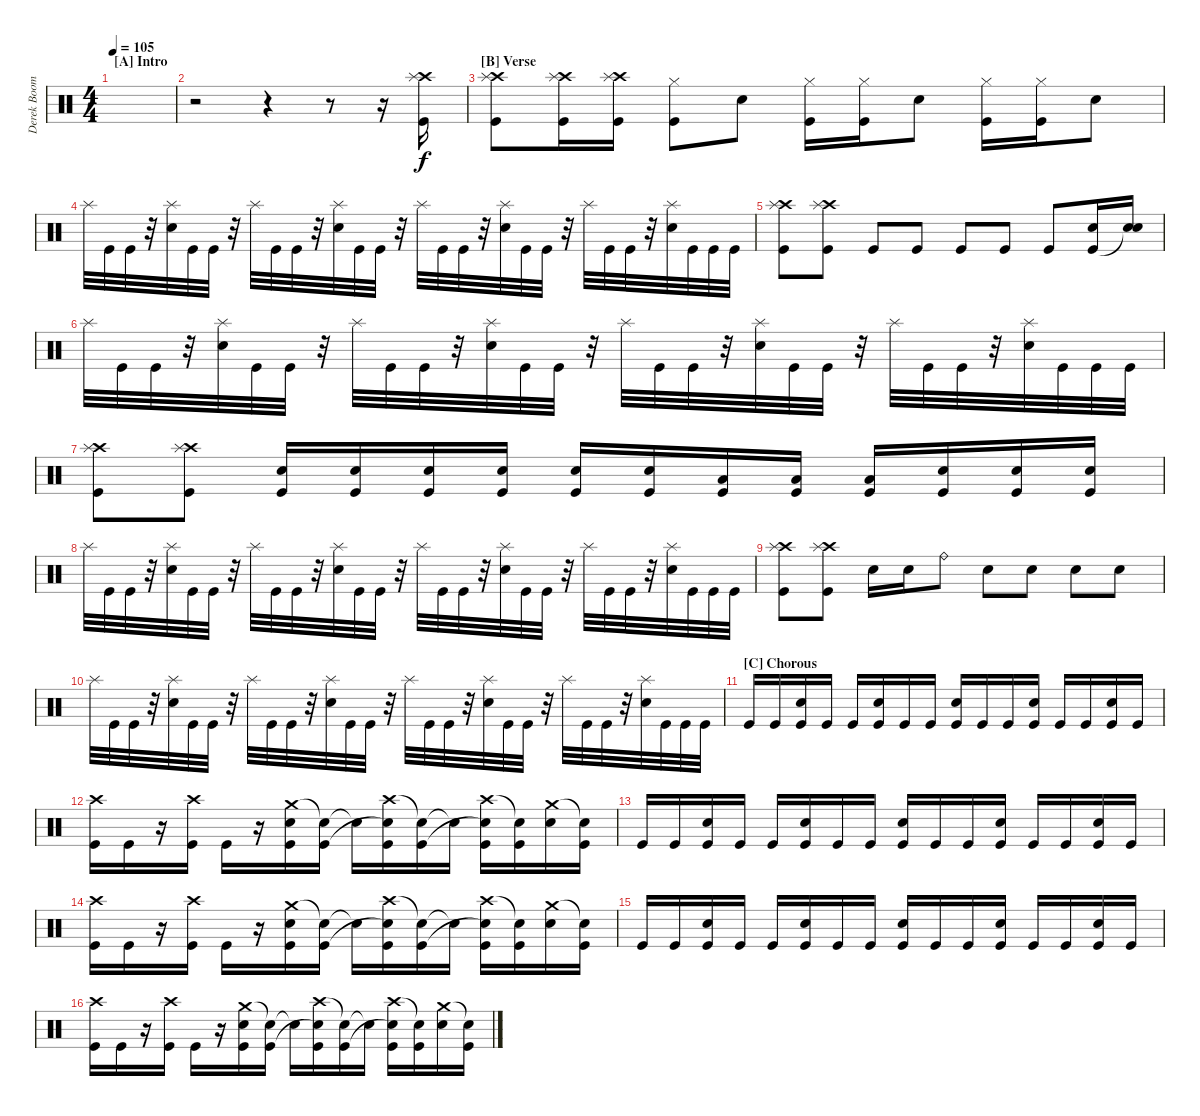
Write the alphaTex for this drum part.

\track ("Derek Boom" "Derek Boom") {instrument percussion}
\staff {score}
\articulation defaults
\ts (4 4)
\section ("" "[A] Intro")
\tempo 105
\clef neutral
\ks c
|
r.2 r.4 r.8 r.16 ("Crash high (hit)" "Splash (hit)" "Kick (hit)").16 |
\section ("" "[B] Verse")
("Crash high (hit)" "Splash (hit)" "Kick (hit)").8 ("Crash high (hit)" "Splash (hit)" "Kick (hit)").16 ("Crash high (hit)" "Splash (hit)" "Kick (hit)").16 ("Hi-Hat (closed)" "Kick (hit)").8 "Electric Snare (hit)".8 ("Hi-Hat (closed)" "Kick (hit)").16 ("Hi-Hat (closed)" "Kick (hit)").16 "Electric Snare (hit)".8 ("Hi-Hat (closed)" "Kick (hit)").16 ("Hi-Hat (closed)" "Kick (hit)").16 "Electric Snare (hit)".8 |
"Splash (hit)".32 "Kick (hit)".32 "Kick (hit)".32 r.32 ("Splash (hit)" "Electric Snare (hit)").32 "Kick (hit)".32 "Kick (hit)".32 r.32 "Splash (hit)".32 "Kick (hit)".32 "Kick (hit)".32 r.32 ("Splash (hit)" "Electric Snare (hit)").32 "Kick (hit)".32 "Kick (hit)".32 r.32 "Splash (hit)".32 "Kick (hit)".32 "Kick (hit)".32 r.32 ("Splash (hit)" "Electric Snare (hit)").32 "Kick (hit)".32 "Kick (hit)".32 r.32 "Splash (hit)".32 "Kick (hit)".32 "Kick (hit)".32 r.32 ("Splash (hit)" "Electric Snare (hit)").32 "Kick (hit)".32 "Kick (hit)".32 "Kick (hit)".32 |
("Crash high (hit)" "Splash (hit)" "Kick (hit)").8 ("Crash high (hit)" "Splash (hit)" "Kick (hit)").8 "Kick (hit)".8 "Kick (hit)".8 "Kick (hit)".8 "Kick (hit)".8 "Kick (hit)".8 ("Electric Snare (hit)" "Kick (hit)").16 ("Electric Snare (hit)" "Snare (hit)"{t}).16 |
"Splash (hit)".32 "Kick (hit)".32 "Kick (hit)".32 r.32 ("Splash (hit)" "Electric Snare (hit)").32 "Kick (hit)".32 "Kick (hit)".32 r.32 "Splash (hit)".32 "Kick (hit)".32 "Kick (hit)".32 r.32 ("Splash (hit)" "Electric Snare (hit)").32 "Kick (hit)".32 "Kick (hit)".32 r.32 "Splash (hit)".32 "Kick (hit)".32 "Kick (hit)".32 r.32 ("Splash (hit)" "Electric Snare (hit)").32 "Kick (hit)".32 "Kick (hit)".32 r.32 "Splash (hit)".32 "Kick (hit)".32 "Kick (hit)".32 r.32 ("Splash (hit)" "Electric Snare (hit)").32 "Kick (hit)".32 "Kick (hit)".32 "Kick (hit)".32 |
("Crash high (hit)" "Splash (hit)" "Kick (hit)").8 ("Crash high (hit)" "Splash (hit)" "Kick (hit)").8 ("Electric Snare (hit)" "Kick (hit)").16 ("Electric Snare (hit)" "Kick (hit)").16 ("Electric Snare (hit)" "Kick (hit)").16 ("Electric Snare (hit)" "Kick (hit)").16 ("Electric Snare (hit)" "Kick (hit)").16 ("Electric Snare (hit)" "Kick (hit)").16 ("Low Tom (hit)" "Kick (hit)").16 ("Low Tom (hit)" "Kick (hit)").16 ("Low Tom (hit)" "Kick (hit)").16 ("Electric Snare (hit)" "Kick (hit)").16 ("Electric Snare (hit)" "Kick (hit)").16 ("Electric Snare (hit)" "Kick (hit)").16 |
"Splash (hit)".32 "Kick (hit)".32 "Kick (hit)".32 r.32 ("Splash (hit)" "Electric Snare (hit)").32 "Kick (hit)".32 "Kick (hit)".32 r.32 "Splash (hit)".32 "Kick (hit)".32 "Kick (hit)".32 r.32 ("Splash (hit)" "Electric Snare (hit)").32 "Kick (hit)".32 "Kick (hit)".32 r.32 "Splash (hit)".32 "Kick (hit)".32 "Kick (hit)".32 r.32 ("Splash (hit)" "Electric Snare (hit)").32 "Kick (hit)".32 "Kick (hit)".32 r.32 "Splash (hit)".32 "Kick (hit)".32 "Kick (hit)".32 r.32 ("Splash (hit)" "Electric Snare (hit)").32 "Kick (hit)".32 "Kick (hit)".32 "Kick (hit)".32 |
("Crash high (hit)" "Splash (hit)" "Kick (hit)").8 ("Crash high (hit)" "Splash (hit)" "Kick (hit)").8 "Electric Snare (hit)".16 "Electric Snare (hit)".16 "Ride (bell)".8 "Electric Snare (hit)".8 "Electric Snare (hit)".8 "Electric Snare (hit)".8 "Electric Snare (hit)".8 |
"Splash (hit)".32 "Kick (hit)".32 "Kick (hit)".32 r.32 ("Splash (hit)" "Electric Snare (hit)").32 "Kick (hit)".32 "Kick (hit)".32 r.32 "Splash (hit)".32 "Kick (hit)".32 "Kick (hit)".32 r.32 ("Splash (hit)" "Electric Snare (hit)").32 "Kick (hit)".32 "Kick (hit)".32 r.32 "Splash (hit)".32 "Kick (hit)".32 "Kick (hit)".32 r.32 ("Splash (hit)" "Electric Snare (hit)").32 "Kick (hit)".32 "Kick (hit)".32 r.32 "Splash (hit)".32 "Kick (hit)".32 "Kick (hit)".32 r.32 ("Splash (hit)" "Electric Snare (hit)").32 "Kick (hit)".32 "Kick (hit)".32 "Kick (hit)".32 |
\section ("" "[C] Chorous")
"Kick (hit)".16 "Kick (hit)".16 ("Electric Snare (hit)" "Kick (hit)").16 "Kick (hit)".16 "Kick (hit)".16 ("Electric Snare (hit)" "Kick (hit)").16 "Kick (hit)".16 "Kick (hit)".16 ("Electric Snare (hit)" "Kick (hit)").16 "Kick (hit)".16 "Kick (hit)".16 ("Electric Snare (hit)" "Kick (hit)").16 "Kick (hit)".16 "Kick (hit)".16 ("Electric Snare (hit)" "Kick (hit)").16 "Kick (hit)".16 |
("Crash high (hit)" "Kick (hit)").16 "Kick (hit)".16 r.16 ("Crash high (hit)" "Kick (hit)").16 "Kick (hit)".16 r.16 ("Crash medium (hit)" "Electric Snare (hit)" "Kick (hit)").16 ("Snare (hit)"{t} "Kick (hit)").16 "Snare (hit)"{t}.16 ("Crash high (hit)" "Electric Snare (hit)"{t} "Kick (hit)").16 ("Snare (hit)"{t} "Kick (hit)").16 "Snare (hit)"{t}.16 ("Crash high (hit)" "Electric Snare (hit)"{t} "Kick (hit)").16 ("Snare (hit)"{t} "Kick (hit)").16 ("Crash medium (hit)" "Electric Snare (hit)").16 ("Snare (hit)"{t} "Kick (hit)").16 |
"Kick (hit)".16 "Kick (hit)".16 ("Electric Snare (hit)" "Kick (hit)").16 "Kick (hit)".16 "Kick (hit)".16 ("Electric Snare (hit)" "Kick (hit)").16 "Kick (hit)".16 "Kick (hit)".16 ("Electric Snare (hit)" "Kick (hit)").16 "Kick (hit)".16 "Kick (hit)".16 ("Electric Snare (hit)" "Kick (hit)").16 "Kick (hit)".16 "Kick (hit)".16 ("Electric Snare (hit)" "Kick (hit)").16 "Kick (hit)".16 |
("Crash high (hit)" "Kick (hit)").16 "Kick (hit)".16 r.16 ("Crash high (hit)" "Kick (hit)").16 "Kick (hit)".16 r.16 ("Crash medium (hit)" "Electric Snare (hit)" "Kick (hit)").16 ("Snare (hit)"{t} "Kick (hit)").16 "Snare (hit)"{t}.16 ("Crash high (hit)" "Electric Snare (hit)"{t} "Kick (hit)").16 ("Snare (hit)"{t} "Kick (hit)").16 "Snare (hit)"{t}.16 ("Crash high (hit)" "Electric Snare (hit)"{t} "Kick (hit)").16 ("Snare (hit)"{t} "Kick (hit)").16 ("Crash medium (hit)" "Electric Snare (hit)").16 ("Snare (hit)"{t} "Kick (hit)").16 |
"Kick (hit)".16 "Kick (hit)".16 ("Electric Snare (hit)" "Kick (hit)").16 "Kick (hit)".16 "Kick (hit)".16 ("Electric Snare (hit)" "Kick (hit)").16 "Kick (hit)".16 "Kick (hit)".16 ("Electric Snare (hit)" "Kick (hit)").16 "Kick (hit)".16 "Kick (hit)".16 ("Electric Snare (hit)" "Kick (hit)").16 "Kick (hit)".16 "Kick (hit)".16 ("Electric Snare (hit)" "Kick (hit)").16 "Kick (hit)".16 |
("Crash high (hit)" "Kick (hit)").16 "Kick (hit)".16 r.16 ("Crash high (hit)" "Kick (hit)").16 "Kick (hit)".16 r.16 ("Crash medium (hit)" "Electric Snare (hit)" "Kick (hit)").16 ("Snare (hit)"{t} "Kick (hit)").16 "Snare (hit)"{t}.16 ("Crash high (hit)" "Electric Snare (hit)"{t} "Kick (hit)").16 ("Snare (hit)"{t} "Kick (hit)").16 "Snare (hit)"{t}.16 ("Crash high (hit)" "Electric Snare (hit)"{t} "Kick (hit)").16 ("Snare (hit)"{t} "Kick (hit)").16 ("Crash medium (hit)" "Electric Snare (hit)").16 ("Snare (hit)"{t} "Kick (hit)").16
